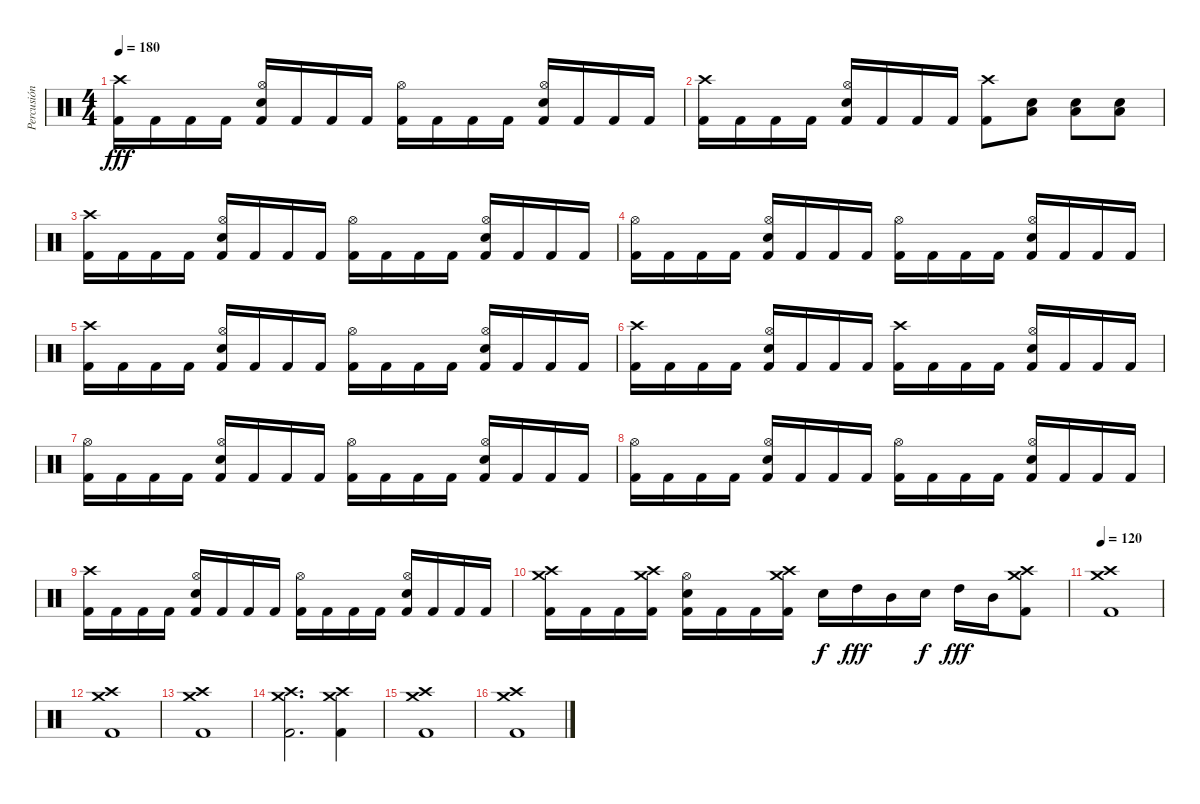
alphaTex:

\track ("Percusión" "Percusión") {instrument percussion}
\staff {score}
\articulation defaults
\ts (4 4)
\tempo 180
\clef neutral
\ks c
("Crash high (hit)" "Kick (hit) 2").16{dy fff} "Kick (hit) 2".16 "Kick (hit) 2".16 "Kick (hit) 2".16 ("Hi-Hat (open)" "Electric Snare (hit)" "Kick (hit) 2").16 "Kick (hit) 2".16 "Kick (hit) 2".16 "Kick (hit) 2".16 ("Hi-Hat (open)" "Kick (hit) 2").16 "Kick (hit) 2".16 "Kick (hit) 2".16 "Kick (hit) 2".16 ("Hi-Hat (open)" "Electric Snare (hit)" "Kick (hit) 2").16 "Kick (hit) 2".16 "Kick (hit) 2".16 "Kick (hit) 2".16 |
("Crash high (hit)" "Kick (hit) 2").16 "Kick (hit) 2".16 "Kick (hit) 2".16 "Kick (hit) 2".16 ("Hi-Hat (open)" "Electric Snare (hit)" "Kick (hit) 2").16 "Kick (hit) 2".16 "Kick (hit) 2".16 "Kick (hit) 2".16 ("Crash high (hit)" "Kick (hit) 2").8 ("Low Tom (hit)" "Electric Snare (hit)").8 ("Low Tom (hit)" "Electric Snare (hit)").8 ("Low Tom (hit)" "Electric Snare (hit)").8 |
("Crash high (hit)" "Kick (hit) 2").16 "Kick (hit) 2".16 "Kick (hit) 2".16 "Kick (hit) 2".16 ("Hi-Hat (open)" "Electric Snare (hit)" "Kick (hit) 2").16 "Kick (hit) 2".16 "Kick (hit) 2".16 "Kick (hit) 2".16 ("Hi-Hat (open)" "Kick (hit) 2").16 "Kick (hit) 2".16 "Kick (hit) 2".16 "Kick (hit) 2".16 ("Hi-Hat (open)" "Electric Snare (hit)" "Kick (hit) 2").16 "Kick (hit) 2".16 "Kick (hit) 2".16 "Kick (hit) 2".16 |
("Hi-Hat (open)" "Kick (hit) 2").16 "Kick (hit) 2".16 "Kick (hit) 2".16 "Kick (hit) 2".16 ("Hi-Hat (open)" "Electric Snare (hit)" "Kick (hit) 2").16 "Kick (hit) 2".16 "Kick (hit) 2".16 "Kick (hit) 2".16 ("Hi-Hat (open)" "Kick (hit) 2").16 "Kick (hit) 2".16 "Kick (hit) 2".16 "Kick (hit) 2".16 ("Hi-Hat (open)" "Electric Snare (hit)" "Kick (hit) 2").16 "Kick (hit) 2".16 "Kick (hit) 2".16 "Kick (hit) 2".16 |
("Crash high (hit)" "Kick (hit) 2").16 "Kick (hit) 2".16 "Kick (hit) 2".16 "Kick (hit) 2".16 ("Hi-Hat (open)" "Electric Snare (hit)" "Kick (hit) 2").16 "Kick (hit) 2".16 "Kick (hit) 2".16 "Kick (hit) 2".16 ("Hi-Hat (open)" "Kick (hit) 2").16 "Kick (hit) 2".16 "Kick (hit) 2".16 "Kick (hit) 2".16 ("Hi-Hat (open)" "Electric Snare (hit)" "Kick (hit) 2").16 "Kick (hit) 2".16 "Kick (hit) 2".16 "Kick (hit) 2".16 |
("Crash high (hit)" "Kick (hit) 2").16 "Kick (hit) 2".16 "Kick (hit) 2".16 "Kick (hit) 2".16 ("Hi-Hat (open)" "Electric Snare (hit)" "Kick (hit) 2").16 "Kick (hit) 2".16 "Kick (hit) 2".16 "Kick (hit) 2".16 ("Crash high (hit)" "Kick (hit) 2").16 "Kick (hit) 2".16 "Kick (hit) 2".16 "Kick (hit) 2".16 ("Hi-Hat (open)" "Electric Snare (hit)" "Kick (hit) 2").16 "Kick (hit) 2".16 "Kick (hit) 2".16 "Kick (hit) 2".16 |
("Hi-Hat (open)" "Kick (hit) 2").16 "Kick (hit) 2".16 "Kick (hit) 2".16 "Kick (hit) 2".16 ("Hi-Hat (open)" "Electric Snare (hit)" "Kick (hit) 2").16 "Kick (hit) 2".16 "Kick (hit) 2".16 "Kick (hit) 2".16 ("Hi-Hat (open)" "Kick (hit) 2").16 "Kick (hit) 2".16 "Kick (hit) 2".16 "Kick (hit) 2".16 ("Hi-Hat (open)" "Electric Snare (hit)" "Kick (hit) 2").16 "Kick (hit) 2".16 "Kick (hit) 2".16 "Kick (hit) 2".16 |
("Hi-Hat (open)" "Kick (hit) 2").16 "Kick (hit) 2".16 "Kick (hit) 2".16 "Kick (hit) 2".16 ("Hi-Hat (open)" "Electric Snare (hit)" "Kick (hit) 2").16 "Kick (hit) 2".16 "Kick (hit) 2".16 "Kick (hit) 2".16 ("Hi-Hat (open)" "Kick (hit) 2").16 "Kick (hit) 2".16 "Kick (hit) 2".16 "Kick (hit) 2".16 ("Hi-Hat (open)" "Electric Snare (hit)" "Kick (hit) 2").16 "Kick (hit) 2".16 "Kick (hit) 2".16 "Kick (hit) 2".16 |
("Crash high (hit)" "Kick (hit) 2").16 "Kick (hit) 2".16 "Kick (hit) 2".16 "Kick (hit) 2".16 ("Hi-Hat (open)" "Electric Snare (hit)" "Kick (hit) 2").16 "Kick (hit) 2".16 "Kick (hit) 2".16 "Kick (hit) 2".16 ("Hi-Hat (open)" "Kick (hit) 2").16 "Kick (hit) 2".16 "Kick (hit) 2".16 "Kick (hit) 2".16 ("Hi-Hat (open)" "Electric Snare (hit)" "Kick (hit) 2").16 "Kick (hit) 2".16 "Kick (hit) 2".16 "Kick (hit) 2".16 |
("Crash medium (hit)" "Crash high (hit)" "Kick (hit) 2").16 "Kick (hit) 2".16 "Kick (hit) 2".16 ("Crash medium (hit)" "Crash high (hit)" "Kick (hit) 2").16 ("Hi-Hat (open)" "Electric Snare (hit)" "Kick (hit) 2").16 "Kick (hit) 2".16 "Kick (hit) 2".16 ("Crash medium (hit)" "Crash high (hit)" "Kick (hit) 2").16 "Electric Snare (hit)".16{dy f} "High Tom (hit)".16{dy fff} "Mid Tom (hit)".16 "Electric Snare (hit)".16{dy f} "High Tom (hit)".16{dy fff} "Mid Tom (hit)".16 ("Crash medium (hit)" "Crash high (hit)" "Kick (hit) 2").8 |
\tempo 120
("Crash medium (hit)" "Crash high (hit)" "Kick (hit) 2").1 |
("Crash medium (hit)" "Crash high (hit)" "Kick (hit) 2").1 |
("Crash medium (hit)" "Crash high (hit)" "Kick (hit) 2").1 |
("Crash medium (hit)" "Crash high (hit)" "Kick (hit) 2").2{d} ("Crash medium (hit)" "Crash high (hit)" "Kick (hit) 2").4 |
("Crash medium (hit)" "Crash high (hit)" "Kick (hit) 2").1 |
("Crash medium (hit)" "Crash high (hit)" "Kick (hit) 2").1
